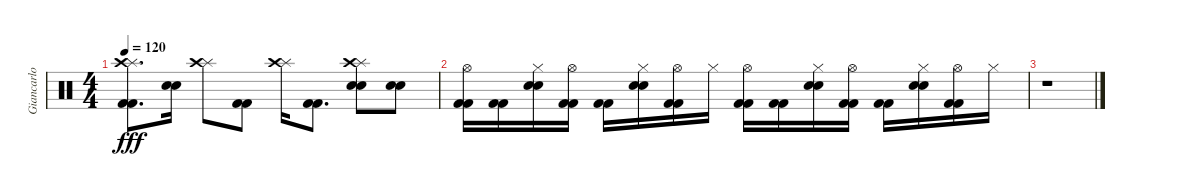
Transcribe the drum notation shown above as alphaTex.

\track ("Giancarlo Autenzio - Drums" "Giancarlo ") {instrument percussion}
\staff {score}
\articulation defaults
\ts (4 4)
\tempo 120
\clef neutral
\ks c
("Kick (hit) 2" "Kick (hit) 2" "Splash (hit)" "Crash high (hit)").8{d dy fff} ("Electric Snare (hit)" "Electric Snare (hit)").16 ("Splash (hit)" "Crash high (hit)").8 ("Kick (hit) 2" "Kick (hit) 2").8 ("Splash (hit)" "Crash high (hit)").16 ("Kick (hit) 2" "Kick (hit) 2").8{d} ("Electric Snare (hit)" "Electric Snare (hit)" "Splash (hit)" "Crash high (hit)").8 ("Electric Snare (hit)" "Electric Snare (hit)").8 |
("Kick (hit) 2" "Kick (hit) 2" "Hi-Hat (open)").16 ("Kick (hit) 2" "Kick (hit) 2").16 ("Electric Snare (hit)" "Electric Snare (hit)" "Hi-Hat (closed)").16 ("Kick (hit) 2" "Kick (hit) 2" "Hi-Hat (open)").16 ("Kick (hit) 2" "Kick (hit) 2").16 ("Electric Snare (hit)" "Electric Snare (hit)" "Hi-Hat (closed)").16 ("Kick (hit) 2" "Kick (hit) 2" "Hi-Hat (open)").16 "Hi-Hat (closed)".16 ("Kick (hit) 2" "Kick (hit) 2" "Hi-Hat (open)").16 ("Kick (hit) 2" "Kick (hit) 2").16 ("Electric Snare (hit)" "Electric Snare (hit)" "Hi-Hat (closed)").16 ("Kick (hit) 2" "Kick (hit) 2" "Hi-Hat (open)").16 ("Kick (hit) 2" "Kick (hit) 2").16 ("Electric Snare (hit)" "Electric Snare (hit)" "Hi-Hat (closed)").16 ("Kick (hit) 2" "Kick (hit) 2" "Hi-Hat (open)").16 "Hi-Hat (closed)".16 |
r.1
